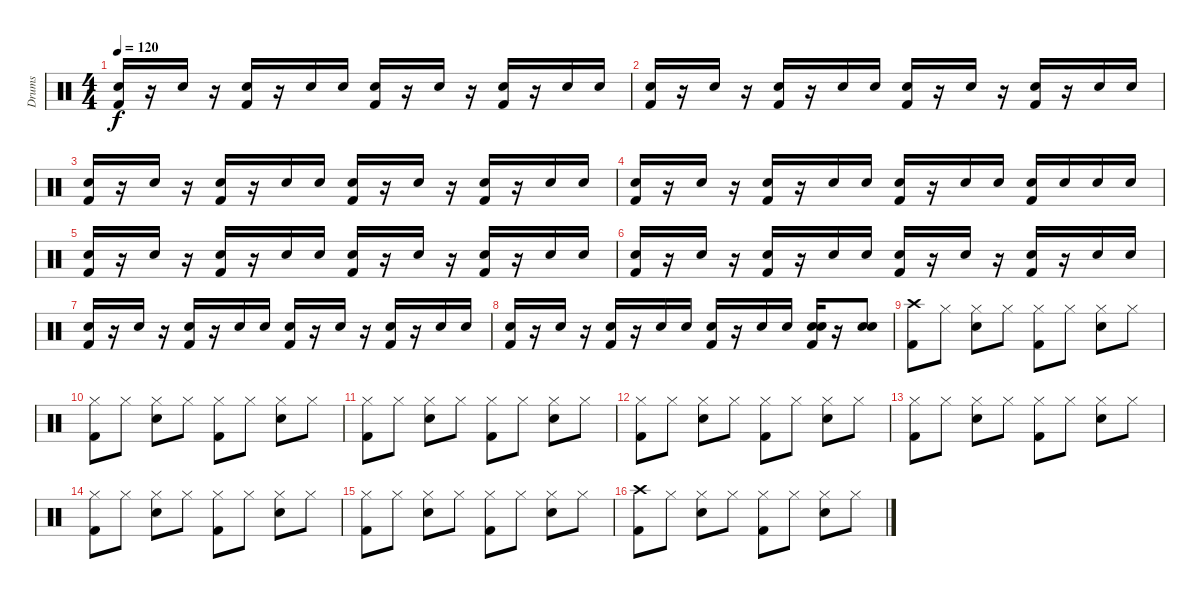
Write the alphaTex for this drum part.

\track ("Drums" "Drums") {instrument percussion}
\staff {score}
\articulation defaults
\ts (4 4)
\tempo 120
\clef neutral
\ks c
("Electric Snare (hit)" "Kick (hit) 2").16{dy f} r.16 "Electric Snare (hit)".16 r.16 ("Electric Snare (hit)" "Kick (hit) 2").16 r.16 "Electric Snare (hit)".16 "Electric Snare (hit)".16 ("Electric Snare (hit)" "Kick (hit) 2").16 r.16 "Electric Snare (hit)".16 r.16 ("Electric Snare (hit)" "Kick (hit) 2").16 r.16 "Electric Snare (hit)".16 "Electric Snare (hit)".16 |
("Electric Snare (hit)" "Kick (hit) 2").16 r.16 "Electric Snare (hit)".16 r.16 ("Electric Snare (hit)" "Kick (hit) 2").16 r.16 "Electric Snare (hit)".16 "Electric Snare (hit)".16 ("Electric Snare (hit)" "Kick (hit) 2").16 r.16 "Electric Snare (hit)".16 r.16 ("Electric Snare (hit)" "Kick (hit) 2").16 r.16 "Electric Snare (hit)".16 "Electric Snare (hit)".16 |
("Electric Snare (hit)" "Kick (hit) 2").16 r.16 "Electric Snare (hit)".16 r.16 ("Electric Snare (hit)" "Kick (hit) 2").16 r.16 "Electric Snare (hit)".16 "Electric Snare (hit)".16 ("Electric Snare (hit)" "Kick (hit) 2").16 r.16 "Electric Snare (hit)".16 r.16 ("Electric Snare (hit)" "Kick (hit) 2").16 r.16 "Electric Snare (hit)".16 "Electric Snare (hit)".16 |
("Electric Snare (hit)" "Kick (hit) 2").16 r.16 "Electric Snare (hit)".16 r.16 ("Electric Snare (hit)" "Kick (hit) 2").16 r.16 "Electric Snare (hit)".16 "Electric Snare (hit)".16 ("Electric Snare (hit)" "Kick (hit) 2").16 r.16 "Electric Snare (hit)".16 "Electric Snare (hit)".16 ("Electric Snare (hit)" "Kick (hit) 2").16 "Electric Snare (hit)".16 "Electric Snare (hit)".16 "Electric Snare (hit)".16 |
("Electric Snare (hit)" "Kick (hit) 2").16 r.16 "Electric Snare (hit)".16 r.16 ("Electric Snare (hit)" "Kick (hit) 2").16 r.16 "Electric Snare (hit)".16 "Electric Snare (hit)".16 ("Electric Snare (hit)" "Kick (hit) 2").16 r.16 "Electric Snare (hit)".16 r.16 ("Electric Snare (hit)" "Kick (hit) 2").16 r.16 "Electric Snare (hit)".16 "Electric Snare (hit)".16 |
("Electric Snare (hit)" "Kick (hit) 2").16 r.16 "Electric Snare (hit)".16 r.16 ("Electric Snare (hit)" "Kick (hit) 2").16 r.16 "Electric Snare (hit)".16 "Electric Snare (hit)".16 ("Electric Snare (hit)" "Kick (hit) 2").16 r.16 "Electric Snare (hit)".16 r.16 ("Electric Snare (hit)" "Kick (hit) 2").16 r.16 "Electric Snare (hit)".16 "Electric Snare (hit)".16 |
("Electric Snare (hit)" "Kick (hit) 2").16 r.16 "Electric Snare (hit)".16 r.16 ("Electric Snare (hit)" "Kick (hit) 2").16 r.16 "Electric Snare (hit)".16 "Electric Snare (hit)".16 ("Electric Snare (hit)" "Kick (hit) 2").16 r.16 "Electric Snare (hit)".16 r.16 ("Electric Snare (hit)" "Kick (hit) 2").16 r.16 "Electric Snare (hit)".16 "Electric Snare (hit)".16 |
("Electric Snare (hit)" "Kick (hit) 2").16 r.16 "Electric Snare (hit)".16 r.16 ("Electric Snare (hit)" "Kick (hit) 2").16 r.16 "Electric Snare (hit)".16 "Electric Snare (hit)".16 ("Electric Snare (hit)" "Kick (hit) 2").16 r.16 "Electric Snare (hit)".16 "Electric Snare (hit)".16 ("Electric Snare (hit)" "Electric Snare (hit)" "Kick (hit) 2").16{bu 60} r.16 ("Electric Snare (hit)" "Electric Snare (hit)").8{bu 60} |
("Crash high (hit)" "Kick (hit) 2").8{volume 12} "Hi-Hat (closed)".8 ("Hi-Hat (closed)" "Snare (hit) 2").8 "Hi-Hat (closed)".8 ("Hi-Hat (closed)" "Kick (hit) 2").8 "Hi-Hat (closed)".8 ("Hi-Hat (closed)" "Snare (hit) 2").8 "Hi-Hat (closed)".8 |
("Hi-Hat (closed)" "Kick (hit) 2").8 "Hi-Hat (closed)".8 ("Hi-Hat (closed)" "Snare (hit) 2").8 "Hi-Hat (closed)".8 ("Hi-Hat (closed)" "Kick (hit) 2").8 "Hi-Hat (closed)".8 ("Hi-Hat (closed)" "Snare (hit) 2").8 "Hi-Hat (closed)".8 |
("Hi-Hat (closed)" "Kick (hit) 2").8 "Hi-Hat (closed)".8 ("Hi-Hat (closed)" "Snare (hit) 2").8 "Hi-Hat (closed)".8 ("Hi-Hat (closed)" "Kick (hit) 2").8 "Hi-Hat (closed)".8 ("Hi-Hat (closed)" "Snare (hit) 2").8 "Hi-Hat (closed)".8 |
("Hi-Hat (closed)" "Kick (hit) 2").8 "Hi-Hat (closed)".8 ("Hi-Hat (closed)" "Snare (hit) 2").8 "Hi-Hat (closed)".8 ("Hi-Hat (closed)" "Kick (hit) 2").8 "Hi-Hat (closed)".8 ("Hi-Hat (closed)" "Snare (hit) 2").8 "Hi-Hat (closed)".8 |
("Hi-Hat (closed)" "Kick (hit) 2").8 "Hi-Hat (closed)".8 ("Hi-Hat (closed)" "Snare (hit) 2").8 "Hi-Hat (closed)".8 ("Hi-Hat (closed)" "Kick (hit) 2").8 "Hi-Hat (closed)".8 ("Hi-Hat (closed)" "Snare (hit) 2").8 "Hi-Hat (closed)".8 |
("Hi-Hat (closed)" "Kick (hit) 2").8 "Hi-Hat (closed)".8 ("Hi-Hat (closed)" "Snare (hit) 2").8 "Hi-Hat (closed)".8 ("Hi-Hat (closed)" "Kick (hit) 2").8 "Hi-Hat (closed)".8 ("Hi-Hat (closed)" "Snare (hit) 2").8 "Hi-Hat (closed)".8 |
("Hi-Hat (closed)" "Kick (hit) 2").8 "Hi-Hat (closed)".8 ("Hi-Hat (closed)" "Snare (hit) 2").8 "Hi-Hat (closed)".8 ("Hi-Hat (closed)" "Kick (hit) 2").8 "Hi-Hat (closed)".8 ("Hi-Hat (closed)" "Snare (hit) 2").8 "Hi-Hat (closed)".8 |
("Crash high (hit)" "Kick (hit) 2").8 "Hi-Hat (closed)".8 ("Hi-Hat (closed)" "Snare (hit) 2").8 "Hi-Hat (closed)".8 ("Hi-Hat (closed)" "Kick (hit) 2").8 "Hi-Hat (closed)".8 ("Hi-Hat (closed)" "Snare (hit) 2").8 "Hi-Hat (closed)".8
